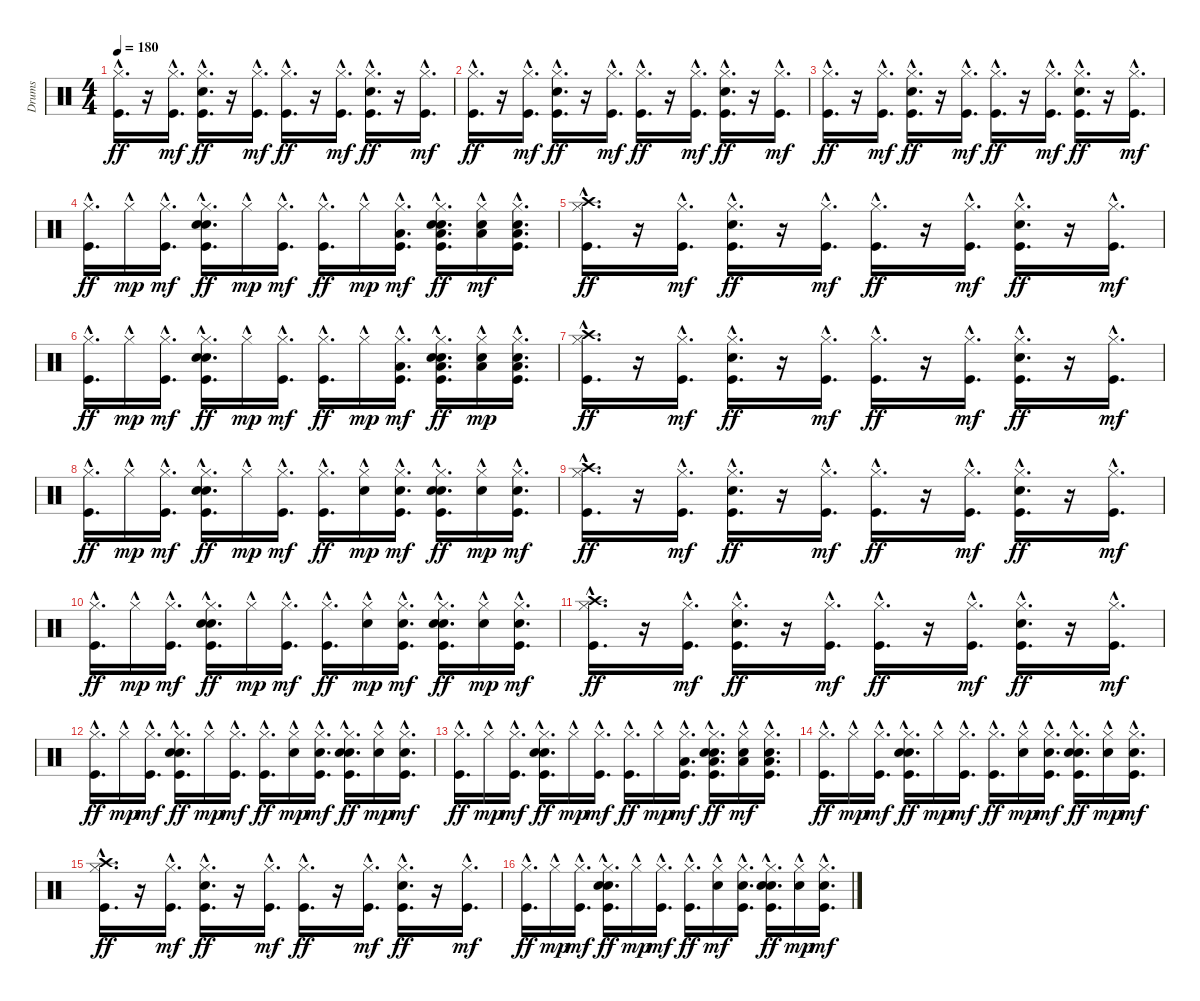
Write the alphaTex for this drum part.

\track ("Drums" "Drums") {instrument percussion}
\staff {score}
\articulation defaults
\ts (4 4)
\tempo 180
\clef neutral
\ks c
("Kick (hit)"{hac} "Hi-Hat (closed)"{hac}).16{d dy ff} r.16 ("Kick (hit)"{hac} "Hi-Hat (closed)"{hac}).16{d dy mf} ("Hi-Hat (closed)"{hac} "Snare (hit) 2"{hac} "Kick (hit)"{hac}).16{d dy ff} r.16 ("Kick (hit)"{hac} "Hi-Hat (closed)"{hac}).16{d dy mf} ("Kick (hit)"{hac} "Hi-Hat (closed)"{hac}).16{d dy ff} r.16 ("Kick (hit)"{hac} "Hi-Hat (closed)"{hac}).16{d dy mf} ("Kick (hit)"{hac} "Snare (hit) 2"{hac} "Hi-Hat (closed)"{hac}).16{d dy ff} r.16 ("Hi-Hat (closed)"{hac} "Kick (hit)"{hac}).16{d dy mf} |
("Kick (hit)"{hac} "Hi-Hat (closed)"{hac}).16{d dy ff} r.16 ("Kick (hit)"{hac} "Hi-Hat (closed)"{hac}).16{d dy mf} ("Kick (hit)"{hac} "Snare (hit) 2"{hac} "Hi-Hat (closed)"{hac}).16{d dy ff} r.16 ("Hi-Hat (closed)"{hac} "Kick (hit)"{hac}).16{d dy mf} ("Kick (hit)"{hac} "Hi-Hat (closed)"{hac}).16{d dy ff} r.16 ("Hi-Hat (closed)"{hac} "Kick (hit)"{hac}).16{d dy mf} ("Hi-Hat (closed)"{hac} "Snare (hit) 2"{hac} "Kick (hit)"{hac}).16{d dy ff} r.16 ("Kick (hit)"{hac} "Hi-Hat (closed)"{hac}).16{d dy mf} |
("Kick (hit)"{hac} "Hi-Hat (closed)"{hac}).16{d dy ff} r.16 ("Hi-Hat (closed)"{hac} "Kick (hit)"{hac}).16{d dy mf} ("Hi-Hat (closed)"{hac} "Snare (hit) 2"{hac} "Kick (hit)"{hac}).16{d dy ff} r.16 ("Kick (hit)"{hac} "Hi-Hat (closed)"{hac}).16{d dy mf} ("Kick (hit)"{hac} "Hi-Hat (closed)"{hac}).16{d dy ff} r.16 ("Kick (hit)"{hac} "Hi-Hat (closed)"{hac}).16{d dy mf} ("Kick (hit)"{hac} "Snare (hit) 2"{hac} "Hi-Hat (closed)"{hac}).16{d dy ff} r.16 ("Kick (hit)"{hac} "Hi-Hat (closed)"{hac}).16{d dy mf} |
("Kick (hit)"{hac} "Hi-Hat (closed)"{hac}).16{d dy ff} "Hi-Hat (closed)"{hac}.16{dy mp} ("Hi-Hat (closed)"{hac} "Kick (hit)"{hac}).16{d dy mf} ("Hi-Hat (closed)"{hac} "Hand Clap (hit)"{hac} "Kick (hit)"{hac} "Snare (hit) 2"{hac}).16{d dy ff} "Hi-Hat (closed)"{hac}.16{dy mp} ("Kick (hit)"{hac} "Hi-Hat (closed)"{hac}).16{d dy mf} ("Kick (hit)"{hac} "Hi-Hat (closed)"{hac}).16{d dy ff} "Hi-Hat (closed)"{hac}.16{dy mp} ("Low Tom (hit)"{hac} "Hi-Hat (closed)"{hac} "Kick (hit)"{hac}).16{d dy mf} ("Kick (hit)"{hac} "Hand Clap (hit)"{hac} "Hi-Hat (closed)"{hac} "Snare (hit) 2"{hac} "Low Tom (hit)"{hac}).16{d dy ff} ("Snare (hit) 2"{hac} "Hi-Hat (closed)"{hac} "Low Tom (hit)"{hac}).16{dy mf} ("Kick (hit)"{hac} "Snare (hit) 2"{hac} "Hi-Hat (closed)"{hac} "Low Tom (hit)"{hac}).16{d} |
("Crash high (hit)"{hac} "Hi-Hat (closed)"{hac} "Kick (hit)"{hac}).16{d dy ff} r.16 ("Kick (hit)"{hac} "Hi-Hat (closed)"{hac}).16{d dy mf} ("Hi-Hat (closed)"{hac} "Snare (hit) 2"{hac} "Kick (hit)"{hac}).16{d dy ff} r.16 ("Kick (hit)"{hac} "Hi-Hat (closed)"{hac}).16{d dy mf} ("Hi-Hat (closed)"{hac} "Kick (hit)"{hac}).16{d dy ff} r.16 ("Kick (hit)"{hac} "Hi-Hat (closed)"{hac}).16{d dy mf} ("Hi-Hat (closed)"{hac} "Snare (hit) 2"{hac} "Kick (hit)"{hac}).16{d dy ff} r.16 ("Kick (hit)"{hac} "Hi-Hat (closed)"{hac}).16{d dy mf} |
("Hi-Hat (closed)"{hac} "Kick (hit)"{hac}).16{d dy ff} "Hi-Hat (closed)"{hac}.16{dy mp} ("Kick (hit)"{hac} "Hi-Hat (closed)"{hac}).16{d dy mf} ("Hi-Hat (closed)"{hac} "Snare (hit) 2"{hac} "Kick (hit)"{hac} "Hand Clap (hit)"{hac}).16{d dy ff} "Hi-Hat (closed)"{hac}.16{dy mp} ("Hi-Hat (closed)"{hac} "Kick (hit)"{hac}).16{d dy mf} ("Kick (hit)"{hac} "Hi-Hat (closed)"{hac}).16{d dy ff} "Hi-Hat (closed)"{hac}.16{dy mp} ("Kick (hit)"{hac} "Hi-Hat (closed)"{hac} "Low Tom (hit)"{hac}).16{d dy mf} ("Hand Clap (hit)"{hac} "Low Tom (hit)"{hac} "Kick (hit)"{hac} "Snare (hit) 2"{hac} "Hi-Hat (closed)"{hac}).16{d dy ff} ("Low Tom (hit)"{hac} "Hi-Hat (closed)"{hac} "Snare (hit) 2"{hac}).16{dy mp} ("Kick (hit)"{hac} "Low Tom (hit)"{hac} "Hi-Hat (closed)"{hac} "Snare (hit) 2"{hac}).16{d} |
("Hi-Hat (closed)"{hac} "Kick (hit)"{hac} "Crash high (hit)"{hac}).16{d dy ff} r.16 ("Kick (hit)"{hac} "Hi-Hat (closed)"{hac}).16{d dy mf} ("Kick (hit)"{hac} "Snare (hit) 2"{hac} "Hi-Hat (closed)"{hac}).16{d dy ff} r.16 ("Hi-Hat (closed)"{hac} "Kick (hit)"{hac}).16{d dy mf} ("Hi-Hat (closed)"{hac} "Kick (hit)"{hac}).16{d dy ff} r.16 ("Kick (hit)"{hac} "Hi-Hat (closed)"{hac}).16{d dy mf} ("Kick (hit)"{hac} "Snare (hit) 2"{hac} "Hi-Hat (closed)"{hac}).16{d dy ff} r.16 ("Kick (hit)"{hac} "Hi-Hat (closed)"{hac}).16{d dy mf} |
("Hi-Hat (closed)"{hac} "Kick (hit)"{hac}).16{d dy ff} "Hi-Hat (closed)"{hac}.16{dy mp} ("Kick (hit)"{hac} "Hi-Hat (closed)"{hac}).16{d dy mf} ("Kick (hit)"{hac} "Hand Clap (hit)"{hac} "Hi-Hat (closed)"{hac} "Snare (hit) 2"{hac}).16{d dy ff} "Hi-Hat (closed)"{hac}.16{dy mp} ("Hi-Hat (closed)"{hac} "Kick (hit)"{hac}).16{d dy mf} ("Kick (hit)"{hac} "Hi-Hat (closed)"{hac}).16{d dy ff} ("Snare (hit) 2"{hac} "Hi-Hat (closed)"{hac}).16{dy mp} ("Hi-Hat (closed)"{hac} "Snare (hit) 2"{hac} "Kick (hit)"{hac}).16{d dy mf} ("Snare (hit) 2"{hac} "Kick (hit)"{hac} "Hi-Hat (closed)"{hac} "Hand Clap (hit)"{hac}).16{d dy ff} ("Snare (hit) 2"{hac} "Hi-Hat (closed)"{hac}).16{dy mp} ("Hi-Hat (closed)"{hac} "Snare (hit) 2"{hac} "Kick (hit)"{hac}).16{d dy mf} |
("Hi-Hat (closed)"{hac} "Crash high (hit)"{hac} "Kick (hit)"{hac}).16{d dy ff} r.16 ("Kick (hit)"{hac} "Hi-Hat (closed)"{hac}).16{d dy mf} ("Hi-Hat (closed)"{hac} "Snare (hit) 2"{hac} "Kick (hit)"{hac}).16{d dy ff} r.16 ("Kick (hit)"{hac} "Hi-Hat (closed)"{hac}).16{d dy mf} ("Hi-Hat (closed)"{hac} "Kick (hit)"{hac}).16{d dy ff} r.16 ("Kick (hit)"{hac} "Hi-Hat (closed)"{hac}).16{d dy mf} ("Hi-Hat (closed)"{hac} "Snare (hit) 2"{hac} "Kick (hit)"{hac}).16{d dy ff} r.16 ("Kick (hit)"{hac} "Hi-Hat (closed)"{hac}).16{d dy mf} |
("Hi-Hat (closed)"{hac} "Kick (hit)"{hac}).16{d dy ff} "Hi-Hat (closed)"{hac}.16{dy mp} ("Kick (hit)"{hac} "Hi-Hat (closed)"{hac}).16{d dy mf} ("Hi-Hat (closed)"{hac} "Snare (hit) 2"{hac} "Kick (hit)"{hac} "Hand Clap (hit)"{hac}).16{d dy ff} "Hi-Hat (closed)"{hac}.16{dy mp} ("Hi-Hat (closed)"{hac} "Kick (hit)"{hac}).16{d dy mf} ("Kick (hit)"{hac} "Hi-Hat (closed)"{hac}).16{d dy ff} ("Snare (hit) 2"{hac} "Hi-Hat (closed)"{hac}).16{dy mp} ("Kick (hit)"{hac} "Snare (hit) 2"{hac} "Hi-Hat (closed)"{hac}).16{d dy mf} ("Hi-Hat (closed)"{hac} "Hand Clap (hit)"{hac} "Kick (hit)"{hac} "Snare (hit) 2"{hac}).16{d dy ff} ("Snare (hit) 2"{hac} "Hi-Hat (closed)"{hac}).16{dy mp} ("Kick (hit)"{hac} "Snare (hit) 2"{hac} "Hi-Hat (closed)"{hac}).16{d dy mf} |
("Kick (hit)"{hac} "Crash high (hit)"{hac} "Hi-Hat (closed)"{hac}).16{d dy ff} r.16 ("Kick (hit)"{hac} "Hi-Hat (closed)"{hac}).16{d dy mf} ("Hi-Hat (closed)"{hac} "Snare (hit) 2"{hac} "Kick (hit)"{hac}).16{d dy ff} r.16 ("Kick (hit)"{hac} "Hi-Hat (closed)"{hac}).16{d dy mf} ("Hi-Hat (closed)"{hac} "Kick (hit)"{hac}).16{d dy ff} r.16 ("Hi-Hat (closed)"{hac} "Kick (hit)"{hac}).16{d dy mf} ("Hi-Hat (closed)"{hac} "Snare (hit) 2"{hac} "Kick (hit)"{hac}).16{d dy ff} r.16 ("Kick (hit)"{hac} "Hi-Hat (closed)"{hac}).16{d dy mf} |
("Kick (hit)"{hac} "Hi-Hat (closed)"{hac}).16{d dy ff} "Hi-Hat (closed)"{hac}.16{dy mp} ("Kick (hit)"{hac} "Hi-Hat (closed)"{hac}).16{d dy mf} ("Hi-Hat (closed)"{hac} "Snare (hit) 2"{hac} "Kick (hit)"{hac} "Hand Clap (hit)"{hac}).16{d dy ff} "Hi-Hat (closed)"{hac}.16{dy mp} ("Hi-Hat (closed)"{hac} "Kick (hit)"{hac}).16{d dy mf} ("Hi-Hat (closed)"{hac} "Kick (hit)"{hac}).16{d dy ff} ("Snare (hit) 2"{hac} "Hi-Hat (closed)"{hac}).16{dy mp} ("Kick (hit)"{hac} "Snare (hit) 2"{hac} "Hi-Hat (closed)"{hac}).16{d dy mf} ("Hand Clap (hit)"{hac} "Hi-Hat (closed)"{hac} "Kick (hit)"{hac} "Snare (hit) 2"{hac}).16{d dy ff} ("Snare (hit) 2"{hac} "Hi-Hat (closed)"{hac}).16{dy mp} ("Kick (hit)"{hac} "Snare (hit) 2"{hac} "Hi-Hat (closed)"{hac}).16{d dy mf} |
("Kick (hit)"{hac} "Hi-Hat (closed)"{hac}).16{d dy ff} "Hi-Hat (closed)"{hac}.16{dy mp} ("Hi-Hat (closed)"{hac} "Kick (hit)"{hac}).16{d dy mf} ("Hi-Hat (closed)"{hac} "Hand Clap (hit)"{hac} "Kick (hit)"{hac} "Snare (hit) 2"{hac}).16{d dy ff} "Hi-Hat (closed)"{hac}.16{dy mp} ("Kick (hit)"{hac} "Hi-Hat (closed)"{hac}).16{d dy mf} ("Hi-Hat (closed)"{hac} "Kick (hit)"{hac}).16{d dy ff} "Hi-Hat (closed)"{hac}.16{dy mp} ("Low Tom (hit)"{hac} "Hi-Hat (closed)"{hac} "Kick (hit)"{hac}).16{d dy mf} ("Hand Clap (hit)"{hac} "Low Tom (hit)"{hac} "Kick (hit)"{hac} "Snare (hit) 2"{hac} "Hi-Hat (closed)"{hac}).16{d dy ff} ("Snare (hit) 2"{hac} "Hi-Hat (closed)"{hac} "Low Tom (hit)"{hac}).16{dy mf} ("Kick (hit)"{hac} "Snare (hit) 2"{hac} "Hi-Hat (closed)"{hac} "Low Tom (hit)"{hac}).16{d} |
("Hi-Hat (closed)"{hac} "Kick (hit)"{hac}).16{d dy ff} "Hi-Hat (closed)"{hac}.16{dy mp} ("Kick (hit)"{hac} "Hi-Hat (closed)"{hac}).16{d dy mf} ("Kick (hit)"{hac} "Snare (hit) 2"{hac} "Hi-Hat (closed)"{hac} "Hand Clap (hit)"{hac}).16{d dy ff} "Hi-Hat (closed)"{hac}.16{dy mp} ("Kick (hit)"{hac} "Hi-Hat (closed)"{hac}).16{d dy mf} ("Kick (hit)"{hac} "Hi-Hat (closed)"{hac}).16{d dy ff} ("Snare (hit) 2"{hac} "Hi-Hat (closed)"{hac}).16{dy mp} ("Kick (hit)"{hac} "Snare (hit) 2"{hac} "Hi-Hat (closed)"{hac}).16{d dy mf} ("Snare (hit) 2"{hac} "Hi-Hat (closed)"{hac} "Kick (hit)"{hac} "Hand Clap (hit)"{hac}).16{d dy ff} ("Snare (hit) 2"{hac} "Hi-Hat (closed)"{hac}).16{dy mp} ("Kick (hit)"{hac} "Snare (hit) 2"{hac} "Hi-Hat (closed)"{hac}).16{d dy mf} |
("Crash high (hit)"{hac} "Hi-Hat (closed)"{hac} "Kick (hit)"{hac}).16{d dy ff} r.16 ("Kick (hit)"{hac} "Hi-Hat (closed)"{hac}).16{d dy mf} ("Hi-Hat (closed)"{hac} "Snare (hit) 2"{hac} "Kick (hit)"{hac}).16{d dy ff} r.16 ("Kick (hit)"{hac} "Hi-Hat (closed)"{hac}).16{d dy mf} ("Kick (hit)"{hac} "Hi-Hat (closed)"{hac}).16{d dy ff} r.16 ("Kick (hit)"{hac} "Hi-Hat (closed)"{hac}).16{d dy mf} ("Snare (hit) 2"{hac} "Hi-Hat (closed)"{hac} "Kick (hit)"{hac}).16{d dy ff} r.16 ("Kick (hit)"{hac} "Hi-Hat (closed)"{hac}).16{d dy mf} |
("Kick (hit)"{hac} "Hi-Hat (closed)"{hac}).16{d dy ff} "Hi-Hat (closed)"{hac}.16{dy mp} ("Kick (hit)"{hac} "Hi-Hat (closed)"{hac}).16{d dy mf} ("Hi-Hat (closed)"{hac} "Snare (hit) 2"{hac} "Kick (hit)"{hac} "Hand Clap (hit)"{hac}).16{d dy ff} "Hi-Hat (closed)"{hac}.16{dy mp} ("Kick (hit)"{hac} "Hi-Hat (closed)"{hac}).16{d dy mf} ("Kick (hit)"{hac} "Hi-Hat (closed)"{hac}).16{d dy ff} ("Hi-Hat (closed)"{hac} "Snare (hit) 2"{hac}).16{dy mf} ("Kick (hit)"{hac} "Snare (hit) 2"{hac} "Hi-Hat (closed)"{hac}).16{d} ("Kick (hit)"{hac} "Snare (hit) 2"{hac} "Hi-Hat (closed)"{hac} "Hand Clap (hit)"{hac}).16{d dy ff} ("Hi-Hat (closed)"{hac} "Snare (hit) 2"{hac}).16{dy mp} ("Snare (hit) 2"{hac} "Kick (hit)"{hac} "Hi-Hat (closed)"{hac}).16{d dy mf}
